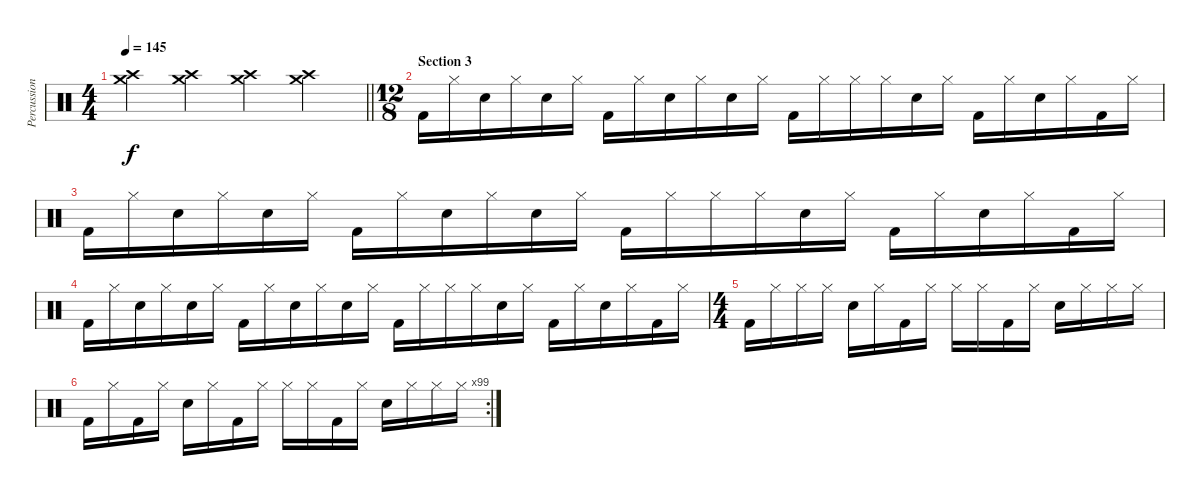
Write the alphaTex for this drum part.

\track ("Percussion" "Percussion") {instrument percussion}
\staff {score}
\articulation defaults
\ts (4 4)
\tempo 145
\clef neutral
\barLineRight lightlight
\ks c
("Crash medium (hit)" "Crash high (hit)").4{dy f} ("Crash medium (hit)" "Crash high (hit)").4 ("Crash medium (hit)" "Crash high (hit)").4 ("Crash medium (hit)" "Crash high (hit)").4 |
\ts (12 8)
\section ("" "Section 3")
"Kick (hit) 2".16 "Hi-Hat (closed)".16 "Snare (hit) 2".16 "Hi-Hat (closed)".16 "Snare (hit) 2".16 "Hi-Hat (closed)".16 "Kick (hit) 2".16 "Hi-Hat (closed)".16 "Snare (hit) 2".16 "Hi-Hat (closed)".16 "Snare (hit) 2".16 "Hi-Hat (closed)".16 "Kick (hit) 2".16 "Hi-Hat (closed)".16 "Hi-Hat (closed)".16 "Hi-Hat (closed)".16 "Snare (hit) 2".16 "Hi-Hat (closed)".16 "Kick (hit) 2".16 "Hi-Hat (closed)".16 "Snare (hit) 2".16 "Hi-Hat (closed)".16 "Kick (hit) 2".16 "Hi-Hat (closed)".16 |
"Kick (hit) 2".16 "Hi-Hat (closed)".16 "Snare (hit) 2".16 "Hi-Hat (closed)".16 "Snare (hit) 2".16 "Hi-Hat (closed)".16 "Kick (hit) 2".16 "Hi-Hat (closed)".16 "Snare (hit) 2".16 "Hi-Hat (closed)".16 "Snare (hit) 2".16 "Hi-Hat (closed)".16 "Kick (hit) 2".16 "Hi-Hat (closed)".16 "Hi-Hat (closed)".16 "Hi-Hat (closed)".16 "Snare (hit) 2".16 "Hi-Hat (closed)".16 "Kick (hit) 2".16 "Hi-Hat (closed)".16 "Snare (hit) 2".16 "Hi-Hat (closed)".16 "Kick (hit) 2".16 "Hi-Hat (closed)".16 |
"Kick (hit) 2".16 "Hi-Hat (closed)".16 "Snare (hit) 2".16 "Hi-Hat (closed)".16 "Snare (hit) 2".16 "Hi-Hat (closed)".16 "Kick (hit) 2".16 "Hi-Hat (closed)".16 "Snare (hit) 2".16 "Hi-Hat (closed)".16 "Snare (hit) 2".16 "Hi-Hat (closed)".16 "Kick (hit) 2".16 "Hi-Hat (closed)".16 "Hi-Hat (closed)".16 "Hi-Hat (closed)".16 "Snare (hit) 2".16 "Hi-Hat (closed)".16 "Kick (hit) 2".16 "Hi-Hat (closed)".16 "Snare (hit) 2".16 "Hi-Hat (closed)".16 "Kick (hit) 2".16 "Hi-Hat (closed)".16 |
\ts (4 4)
"Kick (hit) 2".16 "Hi-Hat (closed)".16 "Hi-Hat (closed)".16 "Hi-Hat (closed)".16 "Snare (hit) 2".16 "Hi-Hat (closed)".16 "Kick (hit) 2".16 "Hi-Hat (closed)".16 "Hi-Hat (closed)".16 "Hi-Hat (closed)".16 "Kick (hit) 2".16 "Hi-Hat (closed)".16 "Snare (hit) 2".16 "Hi-Hat (closed)".16 "Hi-Hat (closed)".16 "Hi-Hat (closed)".16 |
\rc 99 "Kick (hit) 2".16 "Hi-Hat (closed)".16 "Kick (hit) 2".16 "Hi-Hat (closed)".16 "Snare (hit) 2".16 "Hi-Hat (closed)".16 "Kick (hit) 2".16 "Hi-Hat (closed)".16 "Hi-Hat (closed)".16 "Hi-Hat (closed)".16 "Kick (hit) 2".16 "Hi-Hat (closed)".16 "Snare (hit) 2".16 "Hi-Hat (closed)".16 "Hi-Hat (closed)".16 "Hi-Hat (closed)".16
